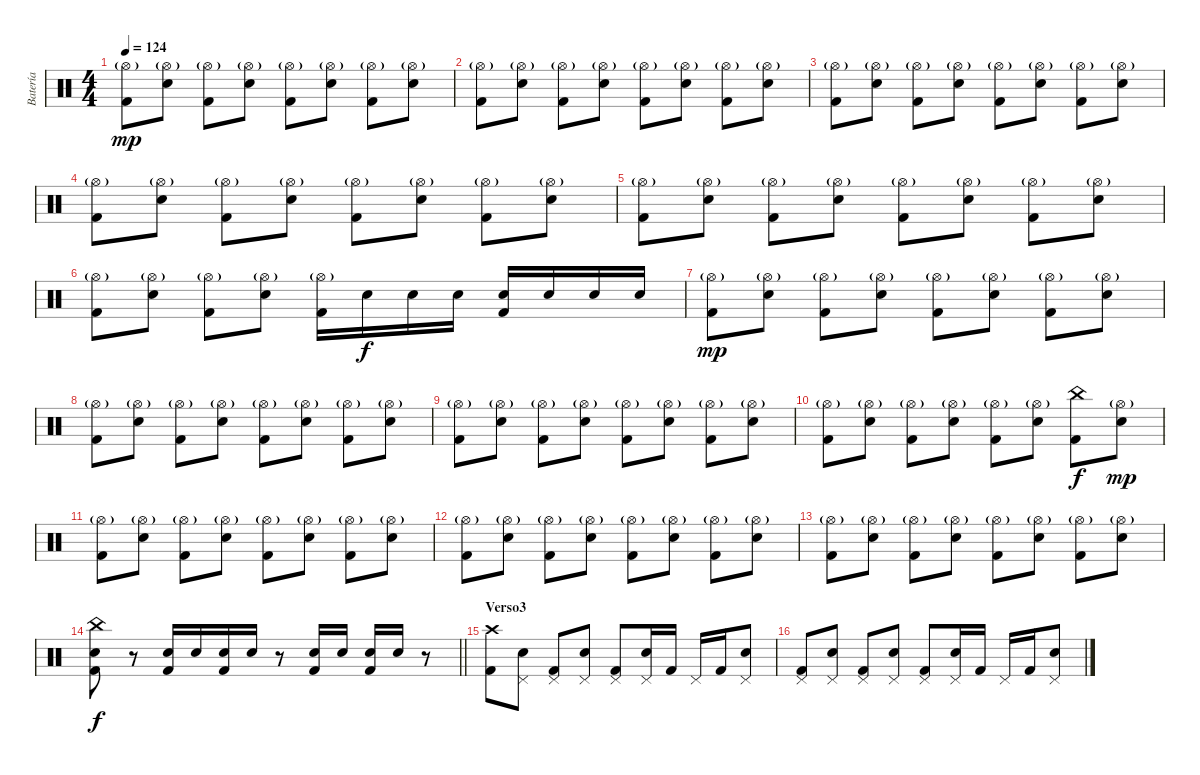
\track ("Batería" "Batería") {instrument percussion}
\staff {score}
\articulation defaults
\ts (4 4)
\tempo 124
\clef neutral
\ks c
("Hi-Hat (open)"{g} "Kick (hit) 2").8{dy mp} ("Hi-Hat (open)"{g} "Snare (hit) 2").8 ("Hi-Hat (open)"{g} "Kick (hit) 2").8 ("Hi-Hat (open)"{g} "Snare (hit) 2").8 ("Hi-Hat (open)"{g} "Kick (hit) 2").8 ("Hi-Hat (open)"{g} "Snare (hit) 2").8 ("Hi-Hat (open)"{g} "Kick (hit) 2").8 ("Hi-Hat (open)"{g} "Snare (hit) 2").8 |
("Hi-Hat (open)"{g} "Kick (hit) 2").8 ("Hi-Hat (open)"{g} "Snare (hit) 2").8 ("Hi-Hat (open)"{g} "Kick (hit) 2").8 ("Hi-Hat (open)"{g} "Snare (hit) 2").8 ("Hi-Hat (open)"{g} "Kick (hit) 2").8 ("Hi-Hat (open)"{g} "Snare (hit) 2").8 ("Hi-Hat (open)"{g} "Kick (hit) 2").8 ("Hi-Hat (open)"{g} "Snare (hit) 2").8 |
("Hi-Hat (open)"{g} "Kick (hit) 2").8 ("Hi-Hat (open)"{g} "Snare (hit) 2").8 ("Hi-Hat (open)"{g} "Kick (hit) 2").8 ("Hi-Hat (open)"{g} "Snare (hit) 2").8 ("Hi-Hat (open)"{g} "Kick (hit) 2").8 ("Hi-Hat (open)"{g} "Snare (hit) 2").8 ("Hi-Hat (open)"{g} "Kick (hit) 2").8 ("Hi-Hat (open)"{g} "Snare (hit) 2").8 |
("Hi-Hat (open)"{g} "Kick (hit) 2").8 ("Hi-Hat (open)"{g} "Snare (hit) 2").8 ("Hi-Hat (open)"{g} "Kick (hit) 2").8 ("Hi-Hat (open)"{g} "Snare (hit) 2").8 ("Hi-Hat (open)"{g} "Kick (hit) 2").8 ("Hi-Hat (open)"{g} "Snare (hit) 2").8 ("Hi-Hat (open)"{g} "Kick (hit) 2").8 ("Hi-Hat (open)"{g} "Snare (hit) 2").8 |
("Hi-Hat (open)"{g} "Kick (hit) 2").8 ("Hi-Hat (open)"{g} "Snare (hit) 2").8 ("Hi-Hat (open)"{g} "Kick (hit) 2").8 ("Hi-Hat (open)"{g} "Snare (hit) 2").8 ("Hi-Hat (open)"{g} "Kick (hit) 2").8 ("Hi-Hat (open)"{g} "Snare (hit) 2").8 ("Hi-Hat (open)"{g} "Kick (hit) 2").8 ("Hi-Hat (open)"{g} "Snare (hit) 2").8 |
("Hi-Hat (open)"{g} "Kick (hit) 2").8 ("Hi-Hat (open)"{g} "Snare (hit) 2").8 ("Hi-Hat (open)"{g} "Kick (hit) 2").8 ("Hi-Hat (open)"{g} "Snare (hit) 2").8 ("Hi-Hat (open)"{g} "Kick (hit) 2").16 "Snare (hit) 2".16{dy f} "Snare (hit) 2".16 "Snare (hit) 2".16 ("Snare (hit) 2" "Kick (hit) 2").16 "Snare (hit) 2".16 "Snare (hit) 2".16 "Snare (hit) 2".16 |
("Hi-Hat (open)"{g} "Kick (hit) 2").8{dy mp} ("Hi-Hat (open)"{g} "Snare (hit) 2").8 ("Hi-Hat (open)"{g} "Kick (hit) 2").8 ("Hi-Hat (open)"{g} "Snare (hit) 2").8 ("Hi-Hat (open)"{g} "Kick (hit) 2").8 ("Hi-Hat (open)"{g} "Snare (hit) 2").8 ("Hi-Hat (open)"{g} "Kick (hit) 2").8 ("Hi-Hat (open)"{g} "Snare (hit) 2").8 |
("Hi-Hat (open)"{g} "Kick (hit) 2").8 ("Hi-Hat (open)"{g} "Snare (hit) 2").8 ("Hi-Hat (open)"{g} "Kick (hit) 2").8 ("Hi-Hat (open)"{g} "Snare (hit) 2").8 ("Hi-Hat (open)"{g} "Kick (hit) 2").8 ("Hi-Hat (open)"{g} "Snare (hit) 2").8 ("Hi-Hat (open)"{g} "Kick (hit) 2").8 ("Hi-Hat (open)"{g} "Snare (hit) 2").8 |
("Hi-Hat (open)"{g} "Kick (hit) 2").8 ("Hi-Hat (open)"{g} "Snare (hit) 2").8 ("Hi-Hat (open)"{g} "Kick (hit) 2").8 ("Hi-Hat (open)"{g} "Snare (hit) 2").8 ("Hi-Hat (open)"{g} "Kick (hit) 2").8 ("Hi-Hat (open)"{g} "Snare (hit) 2").8 ("Hi-Hat (open)"{g} "Kick (hit) 2").8 ("Hi-Hat (open)"{g} "Snare (hit) 2").8 |
("Hi-Hat (open)"{g} "Kick (hit) 2").8 ("Hi-Hat (open)"{g} "Snare (hit) 2").8 ("Hi-Hat (open)"{g} "Kick (hit) 2").8 ("Hi-Hat (open)"{g} "Snare (hit) 2").8 ("Hi-Hat (open)"{g} "Kick (hit) 2").8 ("Hi-Hat (open)"{g} "Snare (hit) 2").8 ("China (hit)" "Kick (hit) 2").8{dy f} ("Hi-Hat (open)"{g} "Snare (hit) 2").8{dy mp} |
("Hi-Hat (open)"{g} "Kick (hit) 2").8 ("Hi-Hat (open)"{g} "Snare (hit) 2").8 ("Hi-Hat (open)"{g} "Kick (hit) 2").8 ("Hi-Hat (open)"{g} "Snare (hit) 2").8 ("Hi-Hat (open)"{g} "Kick (hit) 2").8 ("Hi-Hat (open)"{g} "Snare (hit) 2").8 ("Hi-Hat (open)"{g} "Kick (hit) 2").8 ("Hi-Hat (open)"{g} "Snare (hit) 2").8 |
("Hi-Hat (open)"{g} "Kick (hit) 2").8 ("Hi-Hat (open)"{g} "Snare (hit) 2").8 ("Hi-Hat (open)"{g} "Kick (hit) 2").8 ("Hi-Hat (open)"{g} "Snare (hit) 2").8 ("Hi-Hat (open)"{g} "Kick (hit) 2").8 ("Hi-Hat (open)"{g} "Snare (hit) 2").8 ("Hi-Hat (open)"{g} "Kick (hit) 2").8 ("Hi-Hat (open)"{g} "Snare (hit) 2").8 |
("Hi-Hat (open)"{g} "Kick (hit) 2").8 ("Hi-Hat (open)"{g} "Snare (hit) 2").8 ("Hi-Hat (open)"{g} "Kick (hit) 2").8 ("Hi-Hat (open)"{g} "Snare (hit) 2").8 ("Hi-Hat (open)"{g} "Kick (hit) 2").8 ("Hi-Hat (open)"{g} "Snare (hit) 2").8 ("Hi-Hat (open)"{g} "Kick (hit) 2").8 ("Hi-Hat (open)"{g} "Snare (hit) 2").8 |
\barLineRight lightlight
("China (hit)" "Kick (hit) 2" "Snare (hit) 2").8{dy f} r.8 ("Snare (hit) 2" "Kick (hit) 2").16 "Snare (hit) 2".16 ("Snare (hit) 2" "Kick (hit) 2").16 "Snare (hit) 2".16 r.8 ("Snare (hit) 2" "Kick (hit) 2").16 "Snare (hit) 2".16 ("Snare (hit) 2" "Kick (hit) 2").16 "Snare (hit) 2".16 r.8 |
\section ("" "Verso3")
("Crash high (hit)" "Kick (hit) 2").8 ("Pedal Hi-Hat (hit)" "Snare (hit) 2").8 ("Pedal Hi-Hat (hit)" "Kick (hit) 2").8 ("Pedal Hi-Hat (hit)" "Snare (hit) 2").8 ("Pedal Hi-Hat (hit)" "Kick (hit) 2").8 ("Pedal Hi-Hat (hit)" "Snare (hit) 2").16 "Kick (hit) 2".16 "Pedal Hi-Hat (hit)".16 "Kick (hit) 2".16 ("Pedal Hi-Hat (hit)" "Snare (hit) 2").8 |
("Pedal Hi-Hat (hit)" "Kick (hit) 2").8 ("Pedal Hi-Hat (hit)" "Snare (hit) 2").8 ("Pedal Hi-Hat (hit)" "Kick (hit) 2").8 ("Pedal Hi-Hat (hit)" "Snare (hit) 2").8 ("Pedal Hi-Hat (hit)" "Kick (hit) 2").8 ("Pedal Hi-Hat (hit)" "Snare (hit) 2").16 "Kick (hit) 2".16 "Pedal Hi-Hat (hit)".16 "Kick (hit) 2".16 ("Pedal Hi-Hat (hit)" "Snare (hit) 2").8
